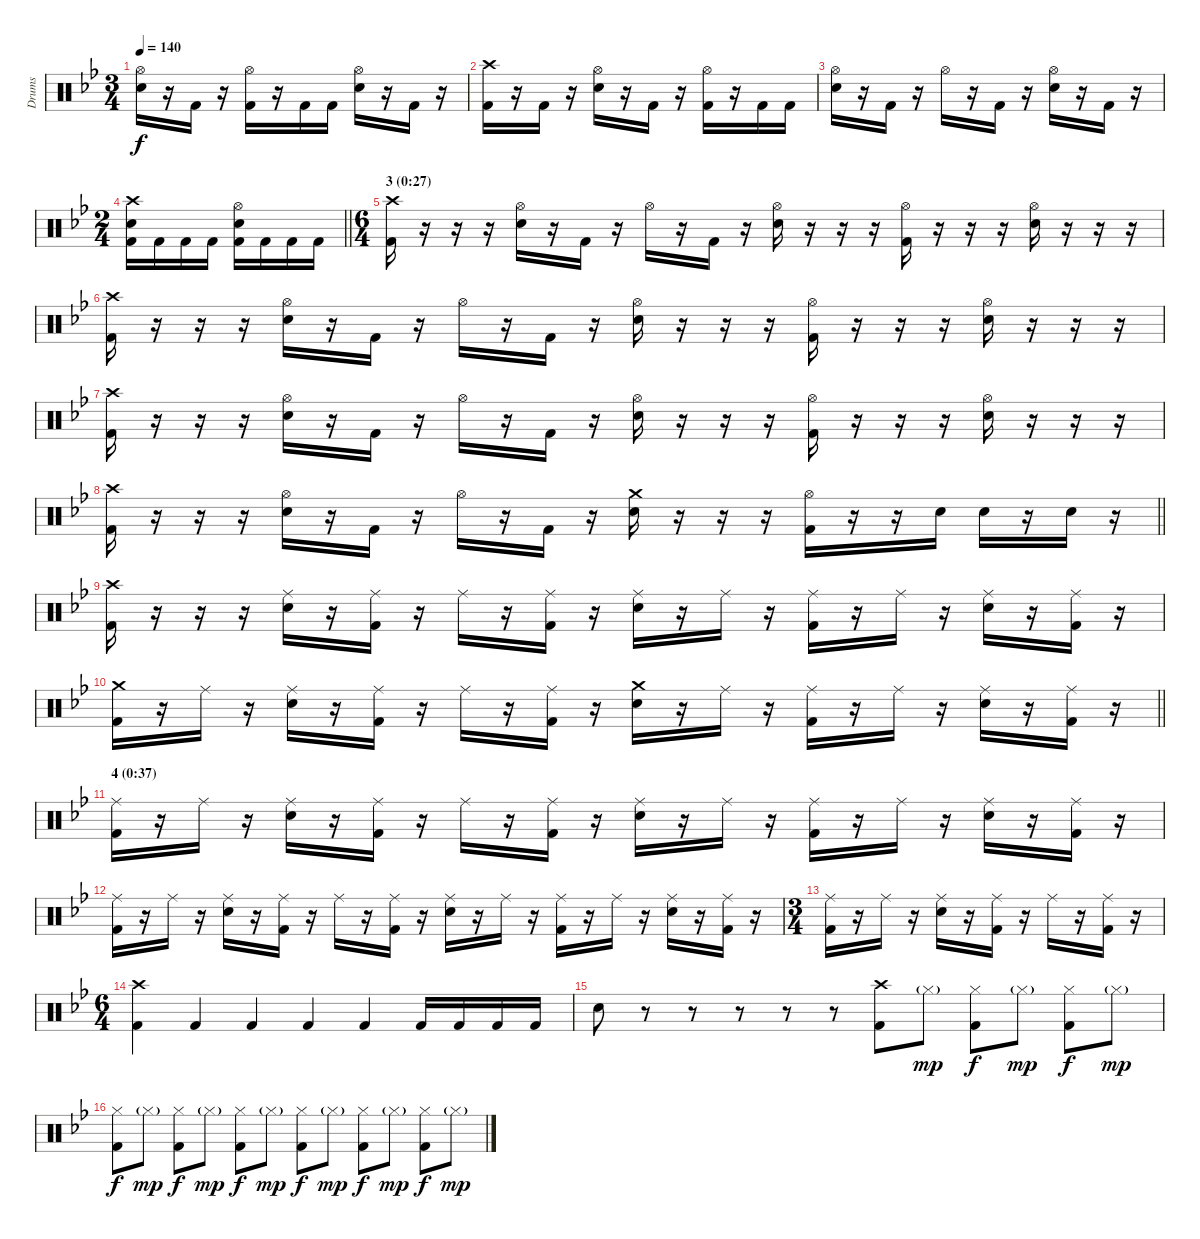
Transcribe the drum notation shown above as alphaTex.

\track ("Drums" "Drums") {instrument percussion}
\staff {score}
\articulation defaults
\ts (3 4)
\tempo 140
\clef neutral
\ks gminor
("Hi-Hat (open)" "Snare (hit) 2").16{dy f} r.16 "Kick (hit) 2".16 r.16 ("Hi-Hat (open)" "Kick (hit) 2").16 r.16 "Kick (hit) 2".16 "Kick (hit) 2".16 ("Hi-Hat (open)" "Snare (hit) 2").16 r.16 "Kick (hit) 2".16 r.16 |
("Crash high (hit)" "Kick (hit) 2").16 r.16 "Kick (hit) 2".16 r.16 ("Hi-Hat (open)" "Snare (hit) 2").16 r.16 "Kick (hit) 2".16 r.16 ("Hi-Hat (open)" "Kick (hit) 2").16 r.16 "Kick (hit) 2".16 "Kick (hit) 2".16 |
("Hi-Hat (open)" "Snare (hit) 2").16 r.16 "Kick (hit) 2".16 r.16 "Hi-Hat (open)".16 r.16 "Kick (hit) 2".16 r.16 ("Hi-Hat (open)" "Snare (hit) 2").16 r.16 "Kick (hit) 2".16 r.16 |
\ts (2 4)
\barLineRight lightlight
("Crash high (hit)" "Snare (hit) 2" "Kick (hit) 2").16 "Kick (hit) 2".16 "Kick (hit) 2".16 "Kick (hit) 2".16 ("Hi-Hat (open)" "Snare (hit) 2" "Kick (hit) 2").16 "Kick (hit) 2".16 "Kick (hit) 2".16 "Kick (hit) 2".16 |
\ts (6 4)
\section ("" "3 (0:27)")
("Crash high (hit)" "Kick (hit) 2").16 r.16 r.16 r.16 ("Hi-Hat (open)" "Snare (hit) 2").16 r.16 "Kick (hit) 2".16 r.16 "Hi-Hat (open)".16 r.16 "Kick (hit) 2".16 r.16 ("Hi-Hat (open)" "Snare (hit) 2").16 r.16 r.16 r.16 ("Hi-Hat (open)" "Kick (hit) 2").16 r.16 r.16 r.16 ("Hi-Hat (open)" "Snare (hit) 2").16 r.16 r.16 r.16 |
("Crash high (hit)" "Kick (hit) 2").16 r.16 r.16 r.16 ("Hi-Hat (open)" "Snare (hit) 2").16 r.16 "Kick (hit) 2".16 r.16 "Hi-Hat (open)".16 r.16 "Kick (hit) 2".16 r.16 ("Hi-Hat (open)" "Snare (hit) 2").16 r.16 r.16 r.16 ("Hi-Hat (open)" "Kick (hit) 2").16 r.16 r.16 r.16 ("Hi-Hat (open)" "Snare (hit) 2").16 r.16 r.16 r.16 |
("Crash high (hit)" "Kick (hit) 2").16 r.16 r.16 r.16 ("Hi-Hat (open)" "Snare (hit) 2").16 r.16 "Kick (hit) 2".16 r.16 "Hi-Hat (open)".16 r.16 "Kick (hit) 2".16 r.16 ("Hi-Hat (open)" "Snare (hit) 2").16 r.16 r.16 r.16 ("Hi-Hat (open)" "Kick (hit) 2").16 r.16 r.16 r.16 ("Hi-Hat (open)" "Snare (hit) 2").16 r.16 r.16 r.16 |
\barLineRight lightlight
("Crash high (hit)" "Kick (hit) 2").16 r.16 r.16 r.16 ("Hi-Hat (open)" "Snare (hit) 2").16 r.16 "Kick (hit) 2".16 r.16 "Hi-Hat (open)".16 r.16 "Kick (hit) 2".16 r.16 ("Crash medium (hit)" "Snare (hit) 2").16 r.16 r.16 r.16 ("Hi-Hat (open)" "Kick (hit) 2").16 r.16 r.16 "Snare (hit) 2".16 "Snare (hit) 2".16 r.16 "Snare (hit) 2".16 r.16 |
("Crash high (hit)" "Kick (hit) 2").16 r.16 r.16 r.16 ("Ride (middle)" "Snare (hit) 2").16 r.16 ("Ride (middle)" "Kick (hit) 2").16 r.16 "Ride (middle)".16 r.16 ("Ride (middle)" "Kick (hit) 2").16 r.16 ("Ride (middle)" "Snare (hit) 2").16 r.16 "Ride (middle)".16 r.16 ("Ride (middle)" "Kick (hit) 2").16 r.16 "Ride (middle)".16 r.16 ("Ride (middle)" "Snare (hit) 2").16 r.16 ("Ride (middle)" "Kick (hit) 2").16 r.16 |
\barLineRight lightlight
("Crash medium (hit)" "Kick (hit) 2").16 r.16 "Ride (middle)".16 r.16 ("Ride (middle)" "Snare (hit) 2").16 r.16 ("Ride (middle)" "Kick (hit) 2").16 r.16 "Ride (middle)".16 r.16 ("Ride (middle)" "Kick (hit) 2").16 r.16 ("Crash medium (hit)" "Snare (hit) 2").16 r.16 "Ride (middle)".16 r.16 ("Ride (middle)" "Kick (hit) 2").16 r.16 "Ride (middle)".16 r.16 ("Ride (middle)" "Snare (hit) 2").16 r.16 ("Ride (middle)" "Kick (hit) 2").16 r.16 |
\section ("" "4 (0:37)")
("Ride (middle)" "Kick (hit) 2").16 r.16 "Ride (middle)".16 r.16 ("Ride (middle)" "Snare (hit) 2").16 r.16 ("Ride (middle)" "Kick (hit) 2").16 r.16 "Ride (middle)".16 r.16 ("Ride (middle)" "Kick (hit) 2").16 r.16 ("Ride (middle)" "Snare (hit) 2").16 r.16 "Ride (middle)".16 r.16 ("Ride (middle)" "Kick (hit) 2").16 r.16 "Ride (middle)".16 r.16 ("Ride (middle)" "Snare (hit) 2").16 r.16 ("Ride (middle)" "Kick (hit) 2").16 r.16 |
("Ride (middle)" "Kick (hit) 2").16 r.16 "Ride (middle)".16 r.16 ("Ride (middle)" "Snare (hit) 2").16 r.16 ("Ride (middle)" "Kick (hit) 2").16 r.16 "Ride (middle)".16 r.16 ("Ride (middle)" "Kick (hit) 2").16 r.16 ("Ride (middle)" "Snare (hit) 2").16 r.16 "Ride (middle)".16 r.16 ("Ride (middle)" "Kick (hit) 2").16 r.16 "Ride (middle)".16 r.16 ("Ride (middle)" "Snare (hit) 2").16 r.16 ("Ride (middle)" "Kick (hit) 2").16 r.16 |
\ts (3 4)
("Ride (middle)" "Kick (hit) 2").16 r.16 "Ride (middle)".16 r.16 ("Ride (middle)" "Snare (hit) 2").16 r.16 ("Ride (middle)" "Kick (hit) 2").16 r.16 "Ride (middle)".16 r.16 ("Ride (middle)" "Kick (hit) 2").16 r.16 |
\ts (6 4)
("Crash high (hit)" "Kick (hit) 2").4 "Kick (hit) 2".4 "Kick (hit) 2".4 "Kick (hit) 2".4 "Kick (hit) 2".4 "Kick (hit) 2".16 "Kick (hit) 2".16 "Kick (hit) 2".16 "Kick (hit) 2".16 |
"Snare (hit) 2".8 r.8 r.8 r.8 r.8 r.8 ("Crash high (hit)" "Kick (hit) 2").8 "Hi-Hat (closed)"{g}.8{dy mp} ("Hi-Hat (closed)" "Kick (hit) 2").8{dy f} "Hi-Hat (closed)"{g}.8{dy mp} ("Hi-Hat (closed)" "Kick (hit) 2").8{dy f} "Hi-Hat (closed)"{g}.8{dy mp} |
("Hi-Hat (closed)" "Kick (hit) 2").8{dy f} "Hi-Hat (closed)"{g}.8{dy mp} ("Hi-Hat (closed)" "Kick (hit) 2").8{dy f} "Hi-Hat (closed)"{g}.8{dy mp} ("Hi-Hat (closed)" "Kick (hit) 2").8{dy f} "Hi-Hat (closed)"{g}.8{dy mp} ("Hi-Hat (closed)" "Kick (hit) 2").8{dy f} "Hi-Hat (closed)"{g}.8{dy mp} ("Hi-Hat (closed)" "Kick (hit) 2").8{dy f} "Hi-Hat (closed)"{g}.8{dy mp} ("Hi-Hat (closed)" "Kick (hit) 2").8{dy f} "Hi-Hat (closed)"{g}.8{dy mp}
